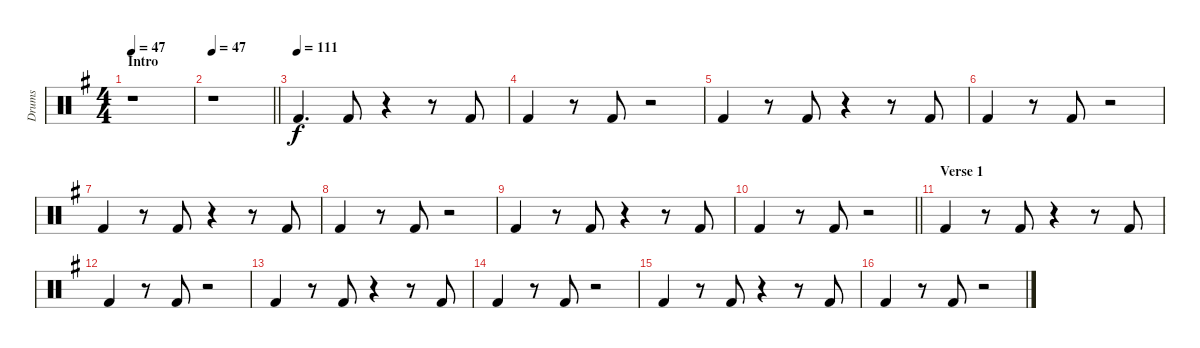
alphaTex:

\track ("Drums" "Drums") {instrument percussion}
\staff {score}
\articulation defaults
\ts (4 4)
\section ("" "Intro")
\tempo 47
\clef neutral
\ks g
r.1{dy f} |
\tempo 47
\barLineRight lightlight
r.1 |
\section ("" "")
\tempo (111)
"Kick (hit) 2".4{d} "Kick (hit) 2".8 r.4 r.8 "Kick (hit) 2".8 |
"Kick (hit) 2".4 r.8 "Kick (hit) 2".8 r.2 |
"Kick (hit) 2".4 r.8 "Kick (hit) 2".8 r.4 r.8 "Kick (hit) 2".8 |
"Kick (hit) 2".4 r.8 "Kick (hit) 2".8 r.2 |
"Kick (hit) 2".4 r.8 "Kick (hit) 2".8 r.4 r.8 "Kick (hit) 2".8 |
"Kick (hit) 2".4 r.8 "Kick (hit) 2".8 r.2 |
"Kick (hit) 2".4 r.8 "Kick (hit) 2".8 r.4 r.8 "Kick (hit) 2".8 |
\barLineRight lightlight "Kick (hit) 2".4
r.8 "Kick (hit) 2".8 r.2 |
\section ("" "Verse 1")
"Kick (hit) 2".4 r.8 "Kick (hit) 2".8 r.4 r.8 "Kick (hit) 2".8 |
"Kick (hit) 2".4 r.8 "Kick (hit) 2".8 r.2 |
"Kick (hit) 2".4 r.8 "Kick (hit) 2".8 r.4 r.8 "Kick (hit) 2".8 |
"Kick (hit) 2".4 r.8 "Kick (hit) 2".8 r.2 |
"Kick (hit) 2".4 r.8 "Kick (hit) 2".8 r.4 r.8 "Kick (hit) 2".8 |
"Kick (hit) 2".4 r.8 "Kick (hit) 2".8 r.2
